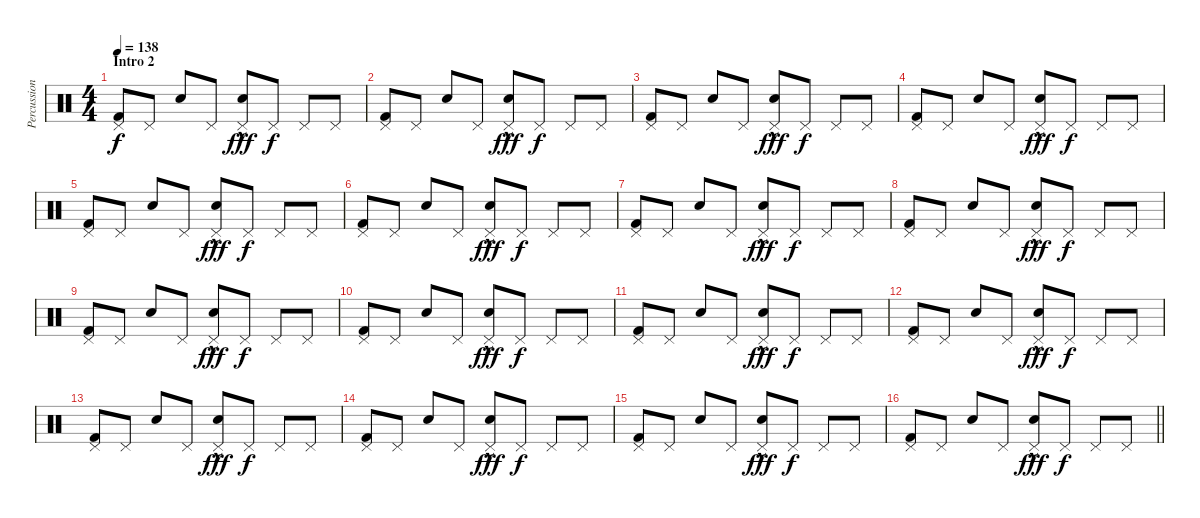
\track ("Percussion" "Percussion") {instrument percussion}
\staff {score}
\articulation defaults
\ts (4 4)
\section ("" "Intro 2")
\tempo 138
\clef neutral
\ks c
("Kick (hit) 2" "Pedal Hi-Hat (hit)").8{dy f} "Pedal Hi-Hat (hit)".8 "Snare (hit)".8 "Pedal Hi-Hat (hit)".8 ("Snare (hit) 2"{hac} "Pedal Hi-Hat (hit)").8{dy fff} "Pedal Hi-Hat (hit)".8{dy f} "Pedal Hi-Hat (hit)".8 "Pedal Hi-Hat (hit)".8 |
("Kick (hit) 2" "Pedal Hi-Hat (hit)").8 "Pedal Hi-Hat (hit)".8 "Snare (hit)".8 "Pedal Hi-Hat (hit)".8 ("Snare (hit) 2"{hac} "Pedal Hi-Hat (hit)").8{dy fff} "Pedal Hi-Hat (hit)".8{dy f} "Pedal Hi-Hat (hit)".8 "Pedal Hi-Hat (hit)".8 |
("Kick (hit) 2" "Pedal Hi-Hat (hit)").8 "Pedal Hi-Hat (hit)".8 "Snare (hit)".8 "Pedal Hi-Hat (hit)".8 ("Snare (hit) 2"{hac} "Pedal Hi-Hat (hit)").8{dy fff} "Pedal Hi-Hat (hit)".8{dy f} "Pedal Hi-Hat (hit)".8 "Pedal Hi-Hat (hit)".8 |
("Kick (hit) 2" "Pedal Hi-Hat (hit)").8 "Pedal Hi-Hat (hit)".8 "Snare (hit)".8 "Pedal Hi-Hat (hit)".8 ("Snare (hit) 2"{hac} "Pedal Hi-Hat (hit)").8{dy fff} "Pedal Hi-Hat (hit)".8{dy f} "Pedal Hi-Hat (hit)".8 "Pedal Hi-Hat (hit)".8 |
("Kick (hit) 2" "Pedal Hi-Hat (hit)").8 "Pedal Hi-Hat (hit)".8 "Snare (hit)".8 "Pedal Hi-Hat (hit)".8 ("Snare (hit) 2"{hac} "Pedal Hi-Hat (hit)").8{dy fff} "Pedal Hi-Hat (hit)".8{dy f} "Pedal Hi-Hat (hit)".8 "Pedal Hi-Hat (hit)".8 |
("Kick (hit) 2" "Pedal Hi-Hat (hit)").8 "Pedal Hi-Hat (hit)".8 "Snare (hit)".8 "Pedal Hi-Hat (hit)".8 ("Snare (hit) 2"{hac} "Pedal Hi-Hat (hit)").8{dy fff} "Pedal Hi-Hat (hit)".8{dy f} "Pedal Hi-Hat (hit)".8 "Pedal Hi-Hat (hit)".8 |
("Kick (hit) 2" "Pedal Hi-Hat (hit)").8 "Pedal Hi-Hat (hit)".8 "Snare (hit)".8 "Pedal Hi-Hat (hit)".8 ("Snare (hit) 2"{hac} "Pedal Hi-Hat (hit)").8{dy fff} "Pedal Hi-Hat (hit)".8{dy f} "Pedal Hi-Hat (hit)".8 "Pedal Hi-Hat (hit)".8 |
("Kick (hit) 2" "Pedal Hi-Hat (hit)").8 "Pedal Hi-Hat (hit)".8 "Snare (hit)".8 "Pedal Hi-Hat (hit)".8 ("Snare (hit) 2"{hac} "Pedal Hi-Hat (hit)").8{dy fff} "Pedal Hi-Hat (hit)".8{dy f} "Pedal Hi-Hat (hit)".8 "Pedal Hi-Hat (hit)".8 |
("Kick (hit) 2" "Pedal Hi-Hat (hit)").8 "Pedal Hi-Hat (hit)".8 "Snare (hit)".8 "Pedal Hi-Hat (hit)".8 ("Snare (hit) 2"{hac} "Pedal Hi-Hat (hit)").8{dy fff} "Pedal Hi-Hat (hit)".8{dy f} "Pedal Hi-Hat (hit)".8 "Pedal Hi-Hat (hit)".8 |
("Kick (hit) 2" "Pedal Hi-Hat (hit)").8 "Pedal Hi-Hat (hit)".8 "Snare (hit)".8 "Pedal Hi-Hat (hit)".8 ("Snare (hit) 2"{hac} "Pedal Hi-Hat (hit)").8{dy fff} "Pedal Hi-Hat (hit)".8{dy f} "Pedal Hi-Hat (hit)".8 "Pedal Hi-Hat (hit)".8 |
("Kick (hit) 2" "Pedal Hi-Hat (hit)").8 "Pedal Hi-Hat (hit)".8 "Snare (hit)".8 "Pedal Hi-Hat (hit)".8 ("Snare (hit) 2"{hac} "Pedal Hi-Hat (hit)").8{dy fff} "Pedal Hi-Hat (hit)".8{dy f} "Pedal Hi-Hat (hit)".8 "Pedal Hi-Hat (hit)".8 |
("Kick (hit) 2" "Pedal Hi-Hat (hit)").8 "Pedal Hi-Hat (hit)".8 "Snare (hit)".8 "Pedal Hi-Hat (hit)".8 ("Snare (hit) 2"{hac} "Pedal Hi-Hat (hit)").8{dy fff} "Pedal Hi-Hat (hit)".8{dy f} "Pedal Hi-Hat (hit)".8 "Pedal Hi-Hat (hit)".8 |
("Kick (hit) 2" "Pedal Hi-Hat (hit)").8 "Pedal Hi-Hat (hit)".8 "Snare (hit)".8 "Pedal Hi-Hat (hit)".8 ("Snare (hit) 2"{hac} "Pedal Hi-Hat (hit)").8{dy fff} "Pedal Hi-Hat (hit)".8{dy f} "Pedal Hi-Hat (hit)".8 "Pedal Hi-Hat (hit)".8 |
("Kick (hit) 2" "Pedal Hi-Hat (hit)").8 "Pedal Hi-Hat (hit)".8 "Snare (hit)".8 "Pedal Hi-Hat (hit)".8 ("Snare (hit) 2"{hac} "Pedal Hi-Hat (hit)").8{dy fff} "Pedal Hi-Hat (hit)".8{dy f} "Pedal Hi-Hat (hit)".8 "Pedal Hi-Hat (hit)".8 |
("Kick (hit) 2" "Pedal Hi-Hat (hit)").8 "Pedal Hi-Hat (hit)".8 "Snare (hit)".8 "Pedal Hi-Hat (hit)".8 ("Snare (hit) 2"{hac} "Pedal Hi-Hat (hit)").8{dy fff} "Pedal Hi-Hat (hit)".8{dy f} "Pedal Hi-Hat (hit)".8 "Pedal Hi-Hat (hit)".8 |
\barLineRight lightlight
("Kick (hit) 2" "Pedal Hi-Hat (hit)").8 "Pedal Hi-Hat (hit)".8 "Snare (hit)".8 "Pedal Hi-Hat (hit)".8 ("Snare (hit) 2"{hac} "Pedal Hi-Hat (hit)").8{dy fff} "Pedal Hi-Hat (hit)".8{dy f} "Pedal Hi-Hat (hit)".8 "Pedal Hi-Hat (hit)".8
